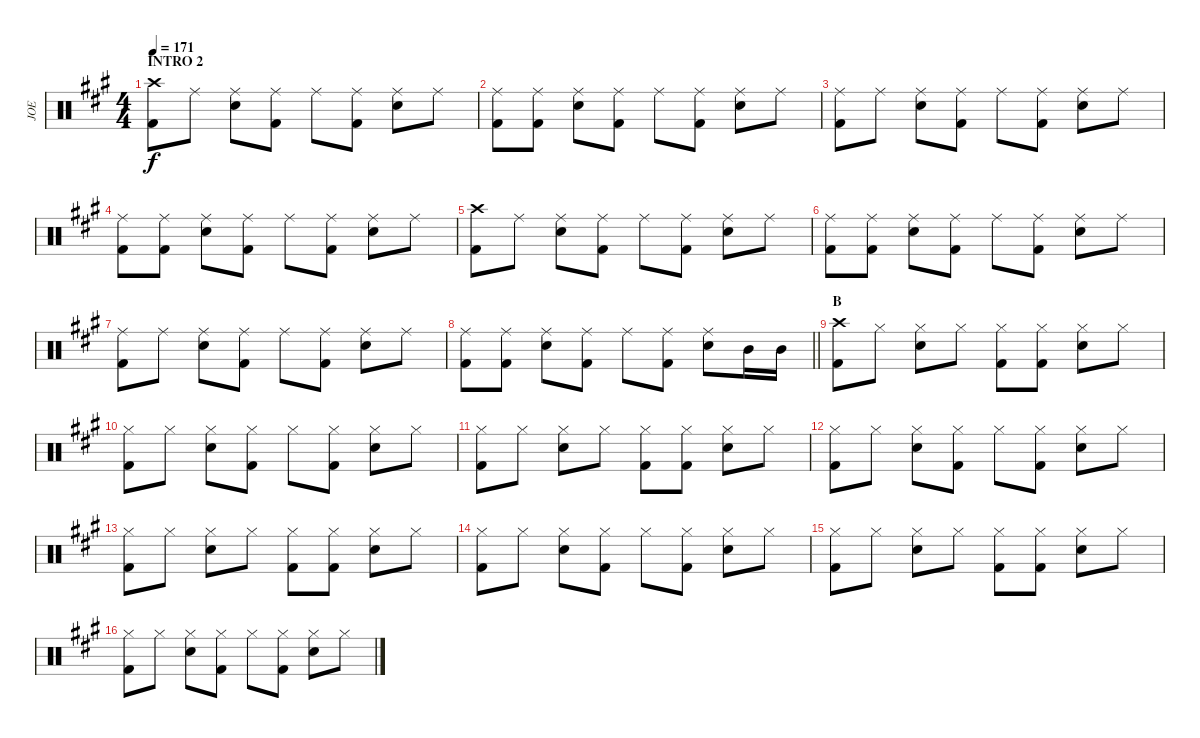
\track ("JOE" "JOE") {instrument percussion}
\staff {score}
\articulation defaults
\ts (4 4)
\section ("" "INTRO 2")
\tempo 171
\clef neutral
\ks a
("Crash high (hit)" "Kick (hit) 2").8{dy f} "Ride (middle)".8 ("Ride (middle)" "Snare (hit) 2").8 ("Ride (middle)" "Kick (hit) 2").8 "Ride (middle)".8 ("Ride (middle)" "Kick (hit) 2").8 ("Ride (middle)" "Snare (hit) 2").8 "Ride (middle)".8 |
("Ride (middle)" "Kick (hit) 2").8 ("Ride (middle)" "Kick (hit) 2").8 ("Ride (middle)" "Snare (hit) 2").8 ("Ride (middle)" "Kick (hit) 2").8 "Ride (middle)".8 ("Ride (middle)" "Kick (hit) 2").8 ("Ride (middle)" "Snare (hit) 2").8 "Ride (middle)".8 |
("Ride (middle)" "Kick (hit) 2").8 "Ride (middle)".8 ("Ride (middle)" "Snare (hit) 2").8 ("Ride (middle)" "Kick (hit) 2").8 "Ride (middle)".8 ("Ride (middle)" "Kick (hit) 2").8 ("Ride (middle)" "Snare (hit) 2").8 "Ride (middle)".8 |
("Ride (middle)" "Kick (hit) 2").8 ("Ride (middle)" "Kick (hit) 2").8 ("Ride (middle)" "Snare (hit) 2").8 ("Ride (middle)" "Kick (hit) 2").8 "Ride (middle)".8 ("Ride (middle)" "Kick (hit) 2").8 ("Ride (middle)" "Snare (hit) 2").8 "Ride (middle)".8 |
("Crash high (hit)" "Kick (hit) 2").8 "Ride (middle)".8 ("Ride (middle)" "Snare (hit) 2").8 ("Ride (middle)" "Kick (hit) 2").8 "Ride (middle)".8 ("Ride (middle)" "Kick (hit) 2").8 ("Ride (middle)" "Snare (hit) 2").8 "Ride (middle)".8 |
("Ride (middle)" "Kick (hit) 2").8 ("Ride (middle)" "Kick (hit) 2").8 ("Ride (middle)" "Snare (hit) 2").8 ("Ride (middle)" "Kick (hit) 2").8 "Ride (middle)".8 ("Ride (middle)" "Kick (hit) 2").8 ("Ride (middle)" "Snare (hit) 2").8 "Ride (middle)".8 |
("Ride (middle)" "Kick (hit) 2").8 "Ride (middle)".8 ("Ride (middle)" "Snare (hit) 2").8 ("Ride (middle)" "Kick (hit) 2").8 "Ride (middle)".8 ("Ride (middle)" "Kick (hit) 2").8 ("Ride (middle)" "Snare (hit) 2").8 "Ride (middle)".8 |
\barLineRight lightlight
("Ride (middle)" "Kick (hit) 2").8 ("Ride (middle)" "Kick (hit) 2").8 ("Ride (middle)" "Snare (hit) 2").8 ("Ride (middle)" "Kick (hit) 2").8 "Ride (middle)".8 ("Ride (middle)" "Kick (hit) 2").8 ("Ride (middle)" "Snare (hit) 2").8 "Mid Tom (hit)".16 "Mid Tom (hit)".16 |
\section ("" "B")
("Crash high (hit)" "Kick (hit) 2").8 "Hi-Hat (closed)".8 ("Hi-Hat (closed)" "Snare (hit) 2").8 "Hi-Hat (closed)".8 ("Hi-Hat (closed)" "Kick (hit) 2").8 ("Hi-Hat (closed)" "Kick (hit) 2").8 ("Hi-Hat (closed)" "Snare (hit) 2").8 "Hi-Hat (closed)".8 |
("Hi-Hat (closed)" "Kick (hit) 2").8 "Hi-Hat (closed)".8 ("Hi-Hat (closed)" "Snare (hit) 2").8 ("Hi-Hat (closed)" "Kick (hit) 2").8 "Hi-Hat (closed)".8 ("Hi-Hat (closed)" "Kick (hit) 2").8 ("Hi-Hat (closed)" "Snare (hit) 2").8 "Hi-Hat (closed)".8 |
("Hi-Hat (closed)" "Kick (hit) 2").8 "Hi-Hat (closed)".8 ("Hi-Hat (closed)" "Snare (hit) 2").8 "Hi-Hat (closed)".8 ("Hi-Hat (closed)" "Kick (hit) 2").8 ("Hi-Hat (closed)" "Kick (hit) 2").8 ("Hi-Hat (closed)" "Snare (hit) 2").8 "Hi-Hat (closed)".8 |
("Hi-Hat (closed)" "Kick (hit) 2").8 "Hi-Hat (closed)".8 ("Hi-Hat (closed)" "Snare (hit) 2").8 ("Hi-Hat (closed)" "Kick (hit) 2").8 "Hi-Hat (closed)".8 ("Hi-Hat (closed)" "Kick (hit) 2").8 ("Hi-Hat (closed)" "Snare (hit) 2").8 "Hi-Hat (closed)".8 |
("Hi-Hat (closed)" "Kick (hit) 2").8 "Hi-Hat (closed)".8 ("Hi-Hat (closed)" "Snare (hit) 2").8 "Hi-Hat (closed)".8 ("Hi-Hat (closed)" "Kick (hit) 2").8 ("Hi-Hat (closed)" "Kick (hit) 2").8 ("Hi-Hat (closed)" "Snare (hit) 2").8 "Hi-Hat (closed)".8 |
("Hi-Hat (closed)" "Kick (hit) 2").8 "Hi-Hat (closed)".8 ("Hi-Hat (closed)" "Snare (hit) 2").8 ("Hi-Hat (closed)" "Kick (hit) 2").8 "Hi-Hat (closed)".8 ("Hi-Hat (closed)" "Kick (hit) 2").8 ("Hi-Hat (closed)" "Snare (hit) 2").8 "Hi-Hat (closed)".8 |
("Hi-Hat (closed)" "Kick (hit) 2").8 "Hi-Hat (closed)".8 ("Hi-Hat (closed)" "Snare (hit) 2").8 "Hi-Hat (closed)".8 ("Hi-Hat (closed)" "Kick (hit) 2").8 ("Hi-Hat (closed)" "Kick (hit) 2").8 ("Hi-Hat (closed)" "Snare (hit) 2").8 "Hi-Hat (closed)".8 |
("Hi-Hat (closed)" "Kick (hit) 2").8 "Hi-Hat (closed)".8 ("Hi-Hat (closed)" "Snare (hit) 2").8 ("Hi-Hat (closed)" "Kick (hit) 2").8 "Hi-Hat (closed)".8 ("Hi-Hat (closed)" "Kick (hit) 2").8 ("Hi-Hat (closed)" "Snare (hit) 2").8 "Hi-Hat (closed)".8
